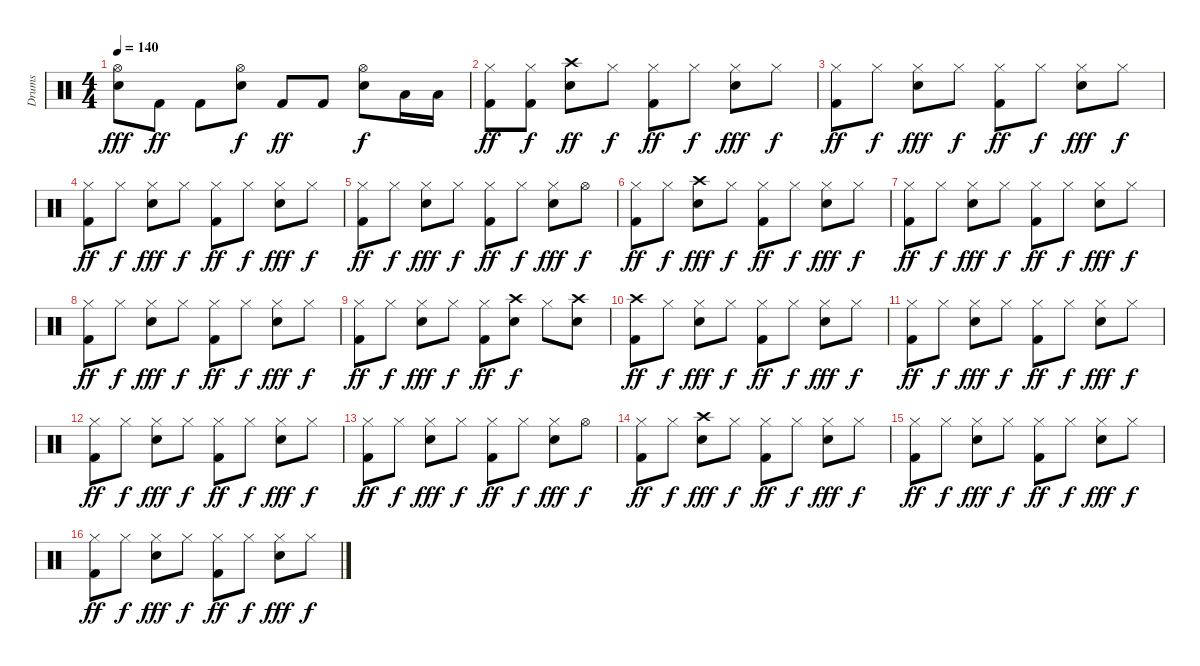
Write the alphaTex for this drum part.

\track ("Drums" "Drums") {instrument percussion}
\staff {score}
\articulation defaults
\ts (4 4)
\tempo 140
\clef neutral
\ks c
("Hi-Hat (open)" "Snare (hit) 2").8{dy fff} "Kick (hit) 2".8{dy ff} "Kick (hit) 2".8 ("Hi-Hat (open)" "Snare (hit) 2").8{dy f} "Kick (hit) 2".8{dy ff} "Kick (hit) 2".8 ("Hi-Hat (open)" "Snare (hit) 2").8{dy f} "Low Tom (hit)".16 "Low Floor Tom (hit)".16 |
("Hi-Hat (closed)" "Kick (hit) 2").8{dy ff} ("Hi-Hat (closed)" "Kick (hit) 2").8{dy f} ("Crash high (hit)" "Snare (hit) 2").8{dy ff} "Hi-Hat (closed)".8{dy f} ("Hi-Hat (closed)" "Kick (hit) 2").8{dy ff} "Hi-Hat (closed)".8{dy f} ("Hi-Hat (closed)" "Snare (hit) 2").8{dy fff} "Hi-Hat (closed)".8{dy f} |
("Hi-Hat (closed)" "Kick (hit) 2").8{dy ff} "Hi-Hat (closed)".8{dy f} ("Hi-Hat (closed)" "Snare (hit) 2").8{dy fff} "Hi-Hat (closed)".8{dy f} ("Hi-Hat (closed)" "Kick (hit) 2").8{dy ff} "Hi-Hat (closed)".8{dy f} ("Hi-Hat (closed)" "Snare (hit) 2").8{dy fff} "Hi-Hat (closed)".8{dy f} |
("Hi-Hat (closed)" "Kick (hit) 2").8{dy ff} "Hi-Hat (closed)".8{dy f} ("Hi-Hat (closed)" "Snare (hit) 2").8{dy fff} "Hi-Hat (closed)".8{dy f} ("Hi-Hat (closed)" "Kick (hit) 2").8{dy ff} "Hi-Hat (closed)".8{dy f} ("Hi-Hat (closed)" "Snare (hit) 2").8{dy fff} "Hi-Hat (closed)".8{dy f} |
("Hi-Hat (closed)" "Kick (hit) 2").8{dy ff} "Hi-Hat (closed)".8{dy f} ("Hi-Hat (closed)" "Snare (hit) 2").8{dy fff} "Hi-Hat (closed)".8{dy f} ("Hi-Hat (closed)" "Kick (hit) 2").8{dy ff} "Hi-Hat (closed)".8{dy f} ("Hi-Hat (closed)" "Snare (hit) 2").8{dy fff} "Hi-Hat (open)".8{dy f} |
("Hi-Hat (closed)" "Kick (hit) 2").8{dy ff} "Hi-Hat (closed)".8{dy f} ("Crash high (hit)" "Snare (hit) 2").8{dy fff} "Hi-Hat (closed)".8{dy f} ("Hi-Hat (closed)" "Kick (hit) 2").8{dy ff} "Hi-Hat (closed)".8{dy f} ("Hi-Hat (closed)" "Snare (hit) 2").8{dy fff} "Hi-Hat (closed)".8{dy f} |
("Hi-Hat (closed)" "Kick (hit) 2").8{dy ff} "Hi-Hat (closed)".8{dy f} ("Hi-Hat (closed)" "Snare (hit) 2").8{dy fff} "Hi-Hat (closed)".8{dy f} ("Hi-Hat (closed)" "Kick (hit) 2").8{dy ff} "Hi-Hat (closed)".8{dy f} ("Hi-Hat (closed)" "Snare (hit) 2").8{dy fff} "Hi-Hat (closed)".8{dy f} |
("Hi-Hat (closed)" "Kick (hit) 2").8{dy ff} "Hi-Hat (closed)".8{dy f} ("Hi-Hat (closed)" "Snare (hit) 2").8{dy fff} "Hi-Hat (closed)".8{dy f} ("Hi-Hat (closed)" "Kick (hit) 2").8{dy ff} "Hi-Hat (closed)".8{dy f} ("Hi-Hat (closed)" "Snare (hit) 2").8{dy fff} "Hi-Hat (closed)".8{dy f} |
("Hi-Hat (closed)" "Kick (hit) 2").8{dy ff} "Hi-Hat (closed)".8{dy f} ("Hi-Hat (closed)" "Snare (hit) 2").8{dy fff} "Hi-Hat (closed)".8{dy f} ("Hi-Hat (closed)" "Kick (hit) 2").8{dy ff} ("Crash high (hit)" "Snare (hit) 2").8{dy f} "Hi-Hat (closed)".8 ("Crash high (hit)" "Snare (hit) 2").8 |
("Crash high (hit)" "Kick (hit) 2").8{dy ff} "Hi-Hat (closed)".8{dy f} ("Hi-Hat (closed)" "Snare (hit) 2").8{dy fff} "Hi-Hat (closed)".8{dy f} ("Hi-Hat (closed)" "Kick (hit) 2").8{dy ff} "Hi-Hat (closed)".8{dy f} ("Hi-Hat (closed)" "Snare (hit) 2").8{dy fff} "Hi-Hat (closed)".8{dy f} |
("Hi-Hat (closed)" "Kick (hit) 2").8{dy ff} "Hi-Hat (closed)".8{dy f} ("Hi-Hat (closed)" "Snare (hit) 2").8{dy fff} "Hi-Hat (closed)".8{dy f} ("Hi-Hat (closed)" "Kick (hit) 2").8{dy ff} "Hi-Hat (closed)".8{dy f} ("Hi-Hat (closed)" "Snare (hit) 2").8{dy fff} "Hi-Hat (closed)".8{dy f} |
("Hi-Hat (closed)" "Kick (hit) 2").8{dy ff} "Hi-Hat (closed)".8{dy f} ("Hi-Hat (closed)" "Snare (hit) 2").8{dy fff} "Hi-Hat (closed)".8{dy f} ("Hi-Hat (closed)" "Kick (hit) 2").8{dy ff} "Hi-Hat (closed)".8{dy f} ("Hi-Hat (closed)" "Snare (hit) 2").8{dy fff} "Hi-Hat (closed)".8{dy f} |
("Hi-Hat (closed)" "Kick (hit) 2").8{dy ff} "Hi-Hat (closed)".8{dy f} ("Hi-Hat (closed)" "Snare (hit) 2").8{dy fff} "Hi-Hat (closed)".8{dy f} ("Hi-Hat (closed)" "Kick (hit) 2").8{dy ff} "Hi-Hat (closed)".8{dy f} ("Hi-Hat (closed)" "Snare (hit) 2").8{dy fff} "Hi-Hat (open)".8{dy f} |
("Hi-Hat (closed)" "Kick (hit) 2").8{dy ff} "Hi-Hat (closed)".8{dy f} ("Crash high (hit)" "Snare (hit) 2").8{dy fff} "Hi-Hat (closed)".8{dy f} ("Hi-Hat (closed)" "Kick (hit) 2").8{dy ff} "Hi-Hat (closed)".8{dy f} ("Hi-Hat (closed)" "Snare (hit) 2").8{dy fff} "Hi-Hat (closed)".8{dy f} |
("Hi-Hat (closed)" "Kick (hit) 2").8{dy ff} "Hi-Hat (closed)".8{dy f} ("Hi-Hat (closed)" "Snare (hit) 2").8{dy fff} "Hi-Hat (closed)".8{dy f} ("Hi-Hat (closed)" "Kick (hit) 2").8{dy ff} "Hi-Hat (closed)".8{dy f} ("Hi-Hat (closed)" "Snare (hit) 2").8{dy fff} "Hi-Hat (closed)".8{dy f} |
("Hi-Hat (closed)" "Kick (hit) 2").8{dy ff} "Hi-Hat (closed)".8{dy f} ("Hi-Hat (closed)" "Snare (hit) 2").8{dy fff} "Hi-Hat (closed)".8{dy f} ("Hi-Hat (closed)" "Kick (hit) 2").8{dy ff} "Hi-Hat (closed)".8{dy f} ("Hi-Hat (closed)" "Snare (hit) 2").8{dy fff} "Hi-Hat (closed)".8{dy f}
